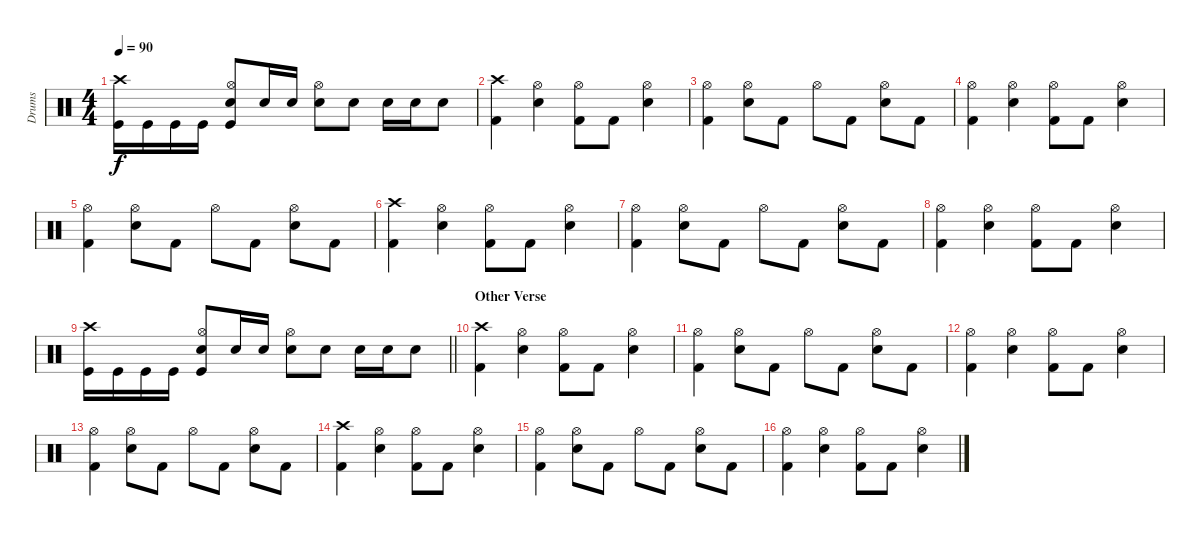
\track ("Drums " "Drums ") {instrument percussion}
\staff {score}
\articulation defaults
\ts (4 4)
\tempo 90
\clef neutral
\ks c
("Crash high (hit)" "Kick (hit)").16{dy f} "Kick (hit)".16 "Kick (hit)".16 "Kick (hit)".16 ("Hi-Hat (open)" "Electric Snare (hit)" "Kick (hit)").8 "Electric Snare (hit)".16 "Electric Snare (hit)".16 ("Hi-Hat (open)" "Electric Snare (hit)").8 "Electric Snare (hit)".8 "Electric Snare (hit)".16 "Electric Snare (hit)".16 "Electric Snare (hit)".8 |
("Crash high (hit)" "Kick (hit) 2").4 ("Hi-Hat (open)" "Electric Snare (hit)").4 ("Hi-Hat (open)" "Kick (hit) 2").8 "Kick (hit) 2".8 ("Hi-Hat (open)" "Electric Snare (hit)").4 |
("Hi-Hat (open)" "Kick (hit) 2").4 ("Hi-Hat (open)" "Electric Snare (hit)").8 "Kick (hit) 2".8 "Hi-Hat (open)".8 "Kick (hit) 2".8 ("Hi-Hat (open)" "Electric Snare (hit)").8 "Kick (hit) 2".8 |
("Hi-Hat (open)" "Kick (hit) 2").4 ("Hi-Hat (open)" "Electric Snare (hit)").4 ("Hi-Hat (open)" "Kick (hit) 2").8 "Kick (hit) 2".8 ("Hi-Hat (open)" "Electric Snare (hit)").4 |
("Hi-Hat (open)" "Kick (hit) 2").4 ("Hi-Hat (open)" "Electric Snare (hit)").8 "Kick (hit) 2".8 "Hi-Hat (open)".8 "Kick (hit) 2".8 ("Hi-Hat (open)" "Electric Snare (hit)").8 "Kick (hit) 2".8 |
("Crash high (hit)" "Kick (hit) 2").4 ("Hi-Hat (open)" "Electric Snare (hit)").4 ("Hi-Hat (open)" "Kick (hit) 2").8 "Kick (hit) 2".8 ("Hi-Hat (open)" "Electric Snare (hit)").4 |
("Hi-Hat (open)" "Kick (hit) 2").4 ("Hi-Hat (open)" "Electric Snare (hit)").8 "Kick (hit) 2".8 "Hi-Hat (open)".8 "Kick (hit) 2".8 ("Hi-Hat (open)" "Electric Snare (hit)").8 "Kick (hit) 2".8 |
("Hi-Hat (open)" "Kick (hit) 2").4 ("Hi-Hat (open)" "Electric Snare (hit)").4 ("Hi-Hat (open)" "Kick (hit) 2").8 "Kick (hit) 2".8 ("Hi-Hat (open)" "Electric Snare (hit)").4 |
\barLineRight lightlight
("Crash high (hit)" "Kick (hit)").16 "Kick (hit)".16 "Kick (hit)".16 "Kick (hit)".16 ("Hi-Hat (open)" "Electric Snare (hit)" "Kick (hit)").8 "Electric Snare (hit)".16 "Electric Snare (hit)".16 ("Hi-Hat (open)" "Electric Snare (hit)").8 "Electric Snare (hit)".8 "Electric Snare (hit)".16 "Electric Snare (hit)".16 "Electric Snare (hit)".8 |
\section ("" "Other Verse ")
("Crash high (hit)" "Kick (hit) 2").4 ("Hi-Hat (open)" "Electric Snare (hit)").4 ("Hi-Hat (open)" "Kick (hit) 2").8 "Kick (hit) 2".8 ("Hi-Hat (open)" "Electric Snare (hit)").4 |
("Hi-Hat (open)" "Kick (hit) 2").4 ("Hi-Hat (open)" "Electric Snare (hit)").8 "Kick (hit) 2".8 "Hi-Hat (open)".8 "Kick (hit) 2".8 ("Hi-Hat (open)" "Electric Snare (hit)").8 "Kick (hit) 2".8 |
("Hi-Hat (open)" "Kick (hit) 2").4 ("Hi-Hat (open)" "Electric Snare (hit)").4 ("Hi-Hat (open)" "Kick (hit) 2").8 "Kick (hit) 2".8 ("Hi-Hat (open)" "Electric Snare (hit)").4 |
("Hi-Hat (open)" "Kick (hit) 2").4 ("Hi-Hat (open)" "Electric Snare (hit)").8 "Kick (hit) 2".8 "Hi-Hat (open)".8 "Kick (hit) 2".8 ("Hi-Hat (open)" "Electric Snare (hit)").8 "Kick (hit) 2".8 |
("Crash high (hit)" "Kick (hit) 2").4 ("Hi-Hat (open)" "Electric Snare (hit)").4 ("Hi-Hat (open)" "Kick (hit) 2").8 "Kick (hit) 2".8 ("Hi-Hat (open)" "Electric Snare (hit)").4 |
("Hi-Hat (open)" "Kick (hit) 2").4 ("Hi-Hat (open)" "Electric Snare (hit)").8 "Kick (hit) 2".8 "Hi-Hat (open)".8 "Kick (hit) 2".8 ("Hi-Hat (open)" "Electric Snare (hit)").8 "Kick (hit) 2".8 |
("Hi-Hat (open)" "Kick (hit) 2").4 ("Hi-Hat (open)" "Electric Snare (hit)").4 ("Hi-Hat (open)" "Kick (hit) 2").8 "Kick (hit) 2".8 ("Hi-Hat (open)" "Electric Snare (hit)").4
